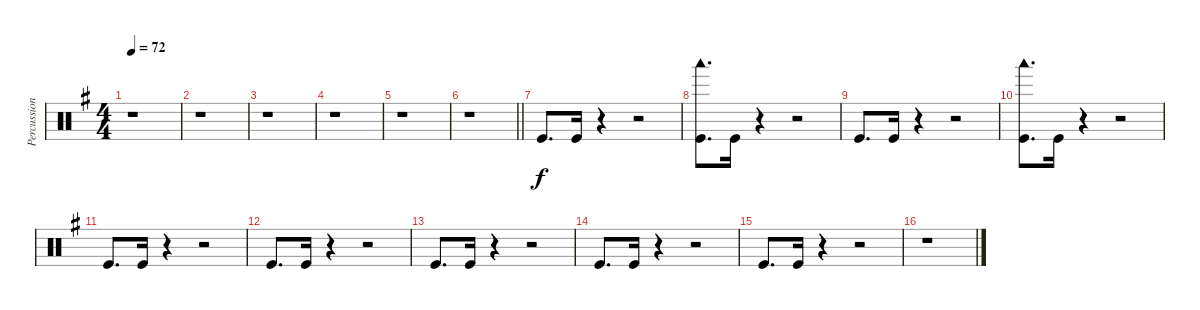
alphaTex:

\track ("Percussions" "Percussion") {instrument percussion}
\staff {score}
\articulation defaults
\ts (4 4)
\tempo 72
\clef neutral
\ks eminor
r.1{dy f} |
r.1 |
r.1 |
r.1 |
r.1 |
\barLineRight lightlight
r.1 |
"Kick (hit)".8{d} "Kick (hit)".16 r.4 r.2 |
("Woodblock low (hit)" "Kick (hit)").8{d} "Kick (hit)".16 r.4 r.2 |
"Kick (hit)".8{d} "Kick (hit)".16 r.4 r.2 |
("Woodblock low (hit)" "Kick (hit)").8{d} "Kick (hit)".16 r.4 r.2 |
"Kick (hit)".8{d} "Kick (hit)".16 r.4 r.2 |
"Kick (hit)".8{d} "Kick (hit)".16 r.4 r.2 |
"Kick (hit)".8{d} "Kick (hit)".16 r.4 r.2 |
"Kick (hit)".8{d} "Kick (hit)".16 r.4 r.2 |
"Kick (hit)".8{d} "Kick (hit)".16 r.4 r.2 |
r.1
